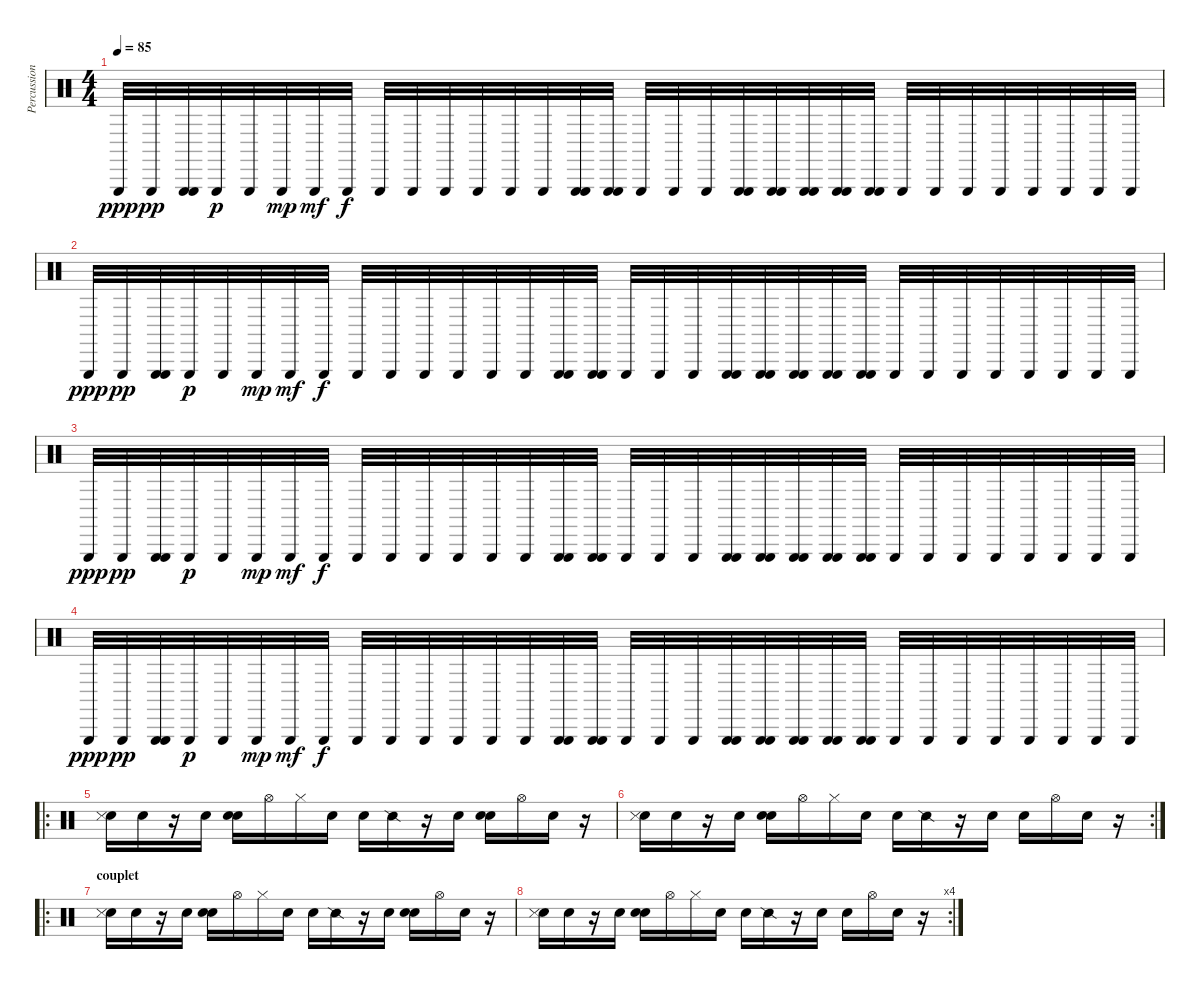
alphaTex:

\track ("Percussions" "Percussion") {instrument percussion}
\staff {score}
\articulation defaults
\ts (4 4)
\tempo 85
\clef neutral
\ks c "Triangle (hit)".32{dy ppp} "Triangle (hit)".32{dy pp}
("Triangle (hit)" "Triangle (hit)").32 "Triangle (hit)".32{dy p} "Triangle (hit)".32 "Triangle (hit)".32{dy mp} "Triangle (hit)".32{dy mf} "Triangle (hit)".32{dy f} "Triangle (hit)".32 "Triangle (hit)".32 "Triangle (hit)".32 "Triangle (hit)".32 "Triangle (hit)".32 "Triangle (hit)".32 ("Triangle (hit)" "Triangle (hit)").32 ("Triangle (hit)" "Triangle (hit)").32 "Triangle (hit)".32 "Triangle (hit)".32 "Triangle (hit)".32 ("Triangle (hit)" "Triangle (hit)").32 ("Triangle (hit)" "Triangle (hit)").32 ("Triangle (hit)" "Triangle (hit)").32 ("Triangle (hit)" "Triangle (hit)").32 ("Triangle (hit)" "Triangle (hit)").32 "Triangle (hit)".32 "Triangle (hit)".32 "Triangle (hit)".32 "Triangle (hit)".32 "Triangle (hit)".32 "Triangle (hit)".32 "Triangle (hit)".32 "Triangle (hit)".32 |
"Triangle (hit)".32{dy ppp} "Triangle (hit)".32{dy pp} ("Triangle (hit)" "Triangle (hit)").32 "Triangle (hit)".32{dy p} "Triangle (hit)".32 "Triangle (hit)".32{dy mp} "Triangle (hit)".32{dy mf} "Triangle (hit)".32{dy f} "Triangle (hit)".32 "Triangle (hit)".32 "Triangle (hit)".32 "Triangle (hit)".32 "Triangle (hit)".32 "Triangle (hit)".32 ("Triangle (hit)" "Triangle (hit)").32 ("Triangle (hit)" "Triangle (hit)").32 "Triangle (hit)".32 "Triangle (hit)".32 "Triangle (hit)".32 ("Triangle (hit)" "Triangle (hit)").32 ("Triangle (hit)" "Triangle (hit)").32 ("Triangle (hit)" "Triangle (hit)").32 ("Triangle (hit)" "Triangle (hit)").32 ("Triangle (hit)" "Triangle (hit)").32 "Triangle (hit)".32 "Triangle (hit)".32 "Triangle (hit)".32 "Triangle (hit)".32 "Triangle (hit)".32 "Triangle (hit)".32 "Triangle (hit)".32 "Triangle (hit)".32 |
"Triangle (hit)".32{dy ppp} "Triangle (hit)".32{dy pp} ("Triangle (hit)" "Triangle (hit)").32 "Triangle (hit)".32{dy p} "Triangle (hit)".32 "Triangle (hit)".32{dy mp} "Triangle (hit)".32{dy mf} "Triangle (hit)".32{dy f} "Triangle (hit)".32 "Triangle (hit)".32 "Triangle (hit)".32 "Triangle (hit)".32 "Triangle (hit)".32 "Triangle (hit)".32 ("Triangle (hit)" "Triangle (hit)").32 ("Triangle (hit)" "Triangle (hit)").32 "Triangle (hit)".32 "Triangle (hit)".32 "Triangle (hit)".32 ("Triangle (hit)" "Triangle (hit)").32 ("Triangle (hit)" "Triangle (hit)").32 ("Triangle (hit)" "Triangle (hit)").32 ("Triangle (hit)" "Triangle (hit)").32 ("Triangle (hit)" "Triangle (hit)").32 "Triangle (hit)".32 "Triangle (hit)".32 "Triangle (hit)".32 "Triangle (hit)".32 "Triangle (hit)".32 "Triangle (hit)".32 "Triangle (hit)".32 "Triangle (hit)".32 |
"Triangle (hit)".32{dy ppp} "Triangle (hit)".32{dy pp} ("Triangle (hit)" "Triangle (hit)").32 "Triangle (hit)".32{dy p} "Triangle (hit)".32 "Triangle (hit)".32{dy mp} "Triangle (hit)".32{dy mf} "Triangle (hit)".32{dy f} "Triangle (hit)".32 "Triangle (hit)".32 "Triangle (hit)".32 "Triangle (hit)".32 "Triangle (hit)".32 "Triangle (hit)".32 ("Triangle (hit)" "Triangle (hit)").32 ("Triangle (hit)" "Triangle (hit)").32 "Triangle (hit)".32 "Triangle (hit)".32 "Triangle (hit)".32 ("Triangle (hit)" "Triangle (hit)").32 ("Triangle (hit)" "Triangle (hit)").32 ("Triangle (hit)" "Triangle (hit)").32 ("Triangle (hit)" "Triangle (hit)").32 ("Triangle (hit)" "Triangle (hit)").32 "Triangle (hit)".32 "Triangle (hit)".32 "Triangle (hit)".32 "Triangle (hit)".32 "Triangle (hit)".32 "Triangle (hit)".32 "Triangle (hit)".32 "Triangle (hit)".32 |
\ro
("Metronome (bell)" "Snare (side stick) 3").16{volume 12} "Electric Snare (hit)".16 r.16 "Snare (hit) 2".16 ("Electric Snare (hit)" "Snare (hit) 2").16 "Hi-Hat (open)".16 "Hi-Hat (closed)".16 "Electric Snare (hit)".16 "Electric Snare (hit)".16 "Snare (side stick) 2".16 r.16 "Snare (hit) 2".16 ("Electric Snare (hit)" "Snare (hit) 2").16 "Hi-Hat (open)".16 "Electric Snare (hit)".16 r.16 |
\rc 2
("Metronome (bell)" "Snare (side stick) 3").16 "Electric Snare (hit)".16 r.16 "Snare (hit) 2".16 ("Electric Snare (hit)" "Snare (hit) 2").16 "Hi-Hat (open)".16 "Hi-Hat (closed)".16 "Electric Snare (hit)".16 "Electric Snare (hit)".16 "Snare (side stick) 2".16 r.16 "Snare (hit) 2".16 "Snare (hit) 2".16 "Hi-Hat (open)".16 "Electric Snare (hit)".16 r.16 |
\ro
\section ("" "couplet")
("Metronome (bell)" "Snare (side stick) 3").16 "Electric Snare (hit)".16 r.16 "Snare (hit) 2".16 ("Electric Snare (hit)" "Snare (hit) 2").16 "Hi-Hat (open)".16 "Hi-Hat (closed)".16 "Electric Snare (hit)".16 "Electric Snare (hit)".16 "Snare (side stick) 2".16 r.16 "Snare (hit) 2".16 ("Electric Snare (hit)" "Snare (hit) 2").16 "Hi-Hat (open)".16 "Electric Snare (hit)".16 r.16 |
\rc 4
("Metronome (bell)" "Snare (side stick) 3").16 "Electric Snare (hit)".16 r.16 "Snare (hit) 2".16 ("Electric Snare (hit)" "Snare (hit) 2").16 "Hi-Hat (open)".16 "Hi-Hat (closed)".16 "Electric Snare (hit)".16 "Electric Snare (hit)".16 "Snare (side stick) 2".16 r.16 "Snare (hit) 2".16 "Snare (hit) 2".16 "Hi-Hat (open)".16 "Electric Snare (hit)".16 r.16
